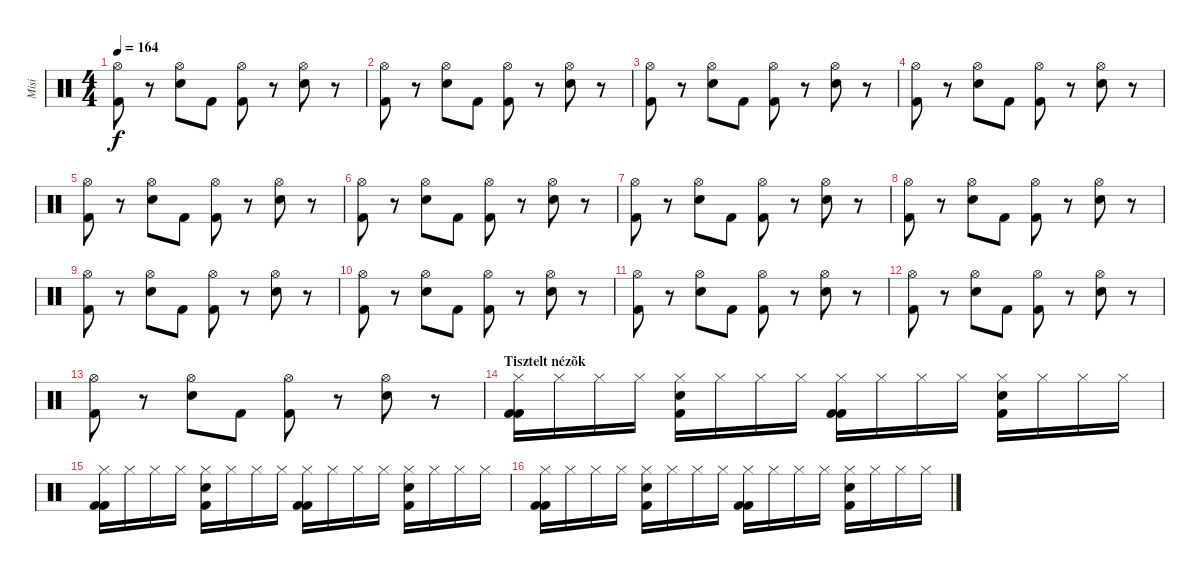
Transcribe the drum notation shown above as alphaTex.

\track ("Misi" "Misi") {instrument percussion}
\staff {score}
\articulation defaults
\ts (4 4)
\tempo 164
\clef neutral
\ks c
("Hi-Hat (open)" "Kick (hit) 2").8{dy f} r.8 ("Hi-Hat (open)" "Electric Snare (hit)").8 "Kick (hit) 2".8 ("Hi-Hat (open)" "Kick (hit) 2").8 r.8 ("Hi-Hat (open)" "Electric Snare (hit)").8 r.8 |
("Hi-Hat (open)" "Kick (hit) 2").8 r.8 ("Hi-Hat (open)" "Electric Snare (hit)").8 "Kick (hit) 2".8 ("Hi-Hat (open)" "Kick (hit) 2").8 r.8 ("Hi-Hat (open)" "Electric Snare (hit)").8 r.8 |
("Hi-Hat (open)" "Kick (hit) 2").8 r.8 ("Hi-Hat (open)" "Electric Snare (hit)").8 "Kick (hit) 2".8 ("Hi-Hat (open)" "Kick (hit) 2").8 r.8 ("Hi-Hat (open)" "Electric Snare (hit)").8 r.8 |
("Hi-Hat (open)" "Kick (hit) 2").8 r.8 ("Hi-Hat (open)" "Electric Snare (hit)").8 "Kick (hit) 2".8 ("Hi-Hat (open)" "Kick (hit) 2").8 r.8 ("Hi-Hat (open)" "Electric Snare (hit)").8 r.8 |
("Hi-Hat (open)" "Kick (hit) 2").8 r.8 ("Hi-Hat (open)" "Electric Snare (hit)").8 "Kick (hit) 2".8 ("Hi-Hat (open)" "Kick (hit) 2").8 r.8 ("Hi-Hat (open)" "Electric Snare (hit)").8 r.8 |
("Hi-Hat (open)" "Kick (hit) 2").8 r.8 ("Hi-Hat (open)" "Electric Snare (hit)").8 "Kick (hit) 2".8 ("Hi-Hat (open)" "Kick (hit) 2").8 r.8 ("Hi-Hat (open)" "Electric Snare (hit)").8 r.8 |
("Hi-Hat (open)" "Kick (hit) 2").8 r.8 ("Hi-Hat (open)" "Electric Snare (hit)").8 "Kick (hit) 2".8 ("Hi-Hat (open)" "Kick (hit) 2").8 r.8 ("Hi-Hat (open)" "Electric Snare (hit)").8 r.8 |
("Hi-Hat (open)" "Kick (hit) 2").8 r.8 ("Hi-Hat (open)" "Electric Snare (hit)").8 "Kick (hit) 2".8 ("Hi-Hat (open)" "Kick (hit) 2").8 r.8 ("Hi-Hat (open)" "Electric Snare (hit)").8 r.8 |
("Hi-Hat (open)" "Kick (hit) 2").8 r.8 ("Hi-Hat (open)" "Electric Snare (hit)").8 "Kick (hit) 2".8 ("Hi-Hat (open)" "Kick (hit) 2").8 r.8 ("Hi-Hat (open)" "Electric Snare (hit)").8 r.8 |
("Hi-Hat (open)" "Kick (hit) 2").8 r.8 ("Hi-Hat (open)" "Electric Snare (hit)").8 "Kick (hit) 2".8 ("Hi-Hat (open)" "Kick (hit) 2").8 r.8 ("Hi-Hat (open)" "Electric Snare (hit)").8 r.8 |
("Hi-Hat (open)" "Kick (hit) 2").8 r.8 ("Hi-Hat (open)" "Electric Snare (hit)").8 "Kick (hit) 2".8 ("Hi-Hat (open)" "Kick (hit) 2").8 r.8 ("Hi-Hat (open)" "Electric Snare (hit)").8 r.8 |
("Hi-Hat (open)" "Kick (hit) 2").8 r.8 ("Hi-Hat (open)" "Electric Snare (hit)").8 "Kick (hit) 2".8 ("Hi-Hat (open)" "Kick (hit) 2").8 r.8 ("Hi-Hat (open)" "Electric Snare (hit)").8 r.8 |
("Hi-Hat (open)" "Kick (hit) 2").8 r.8 ("Hi-Hat (open)" "Electric Snare (hit)").8 "Kick (hit) 2".8 ("Hi-Hat (open)" "Kick (hit) 2").8 r.8 ("Hi-Hat (open)" "Electric Snare (hit)").8 r.8 |
\section ("" "Tisztelt nézõk")
("Hi-Hat (closed)" "Kick (hit) 2" "Kick (hit) 2").16 "Hi-Hat (closed)".16 "Hi-Hat (closed)".16 "Hi-Hat (closed)".16 ("Hi-Hat (closed)" "Electric Snare (hit)" "Kick (hit) 2").16 "Hi-Hat (closed)".16 "Hi-Hat (closed)".16 "Hi-Hat (closed)".16 ("Hi-Hat (closed)" "Kick (hit) 2" "Kick (hit) 2").16 "Hi-Hat (closed)".16 "Hi-Hat (closed)".16 "Hi-Hat (closed)".16 ("Hi-Hat (closed)" "Electric Snare (hit)" "Kick (hit) 2").16 "Hi-Hat (closed)".16 "Hi-Hat (closed)".16 "Hi-Hat (closed)".16 |
("Hi-Hat (closed)" "Kick (hit) 2" "Kick (hit) 2").16 "Hi-Hat (closed)".16 "Hi-Hat (closed)".16 "Hi-Hat (closed)".16 ("Hi-Hat (closed)" "Electric Snare (hit)" "Kick (hit) 2").16 "Hi-Hat (closed)".16 "Hi-Hat (closed)".16 "Hi-Hat (closed)".16 ("Hi-Hat (closed)" "Kick (hit) 2" "Kick (hit) 2").16 "Hi-Hat (closed)".16 "Hi-Hat (closed)".16 "Hi-Hat (closed)".16 ("Hi-Hat (closed)" "Electric Snare (hit)" "Kick (hit) 2").16 "Hi-Hat (closed)".16 "Hi-Hat (closed)".16 "Hi-Hat (closed)".16 |
("Hi-Hat (closed)" "Kick (hit) 2" "Kick (hit) 2").16 "Hi-Hat (closed)".16 "Hi-Hat (closed)".16 "Hi-Hat (closed)".16 ("Hi-Hat (closed)" "Electric Snare (hit)" "Kick (hit) 2").16 "Hi-Hat (closed)".16 "Hi-Hat (closed)".16 "Hi-Hat (closed)".16 ("Hi-Hat (closed)" "Kick (hit) 2" "Kick (hit) 2").16 "Hi-Hat (closed)".16 "Hi-Hat (closed)".16 "Hi-Hat (closed)".16 ("Hi-Hat (closed)" "Electric Snare (hit)" "Kick (hit) 2").16 "Hi-Hat (closed)".16 "Hi-Hat (closed)".16 "Hi-Hat (closed)".16
